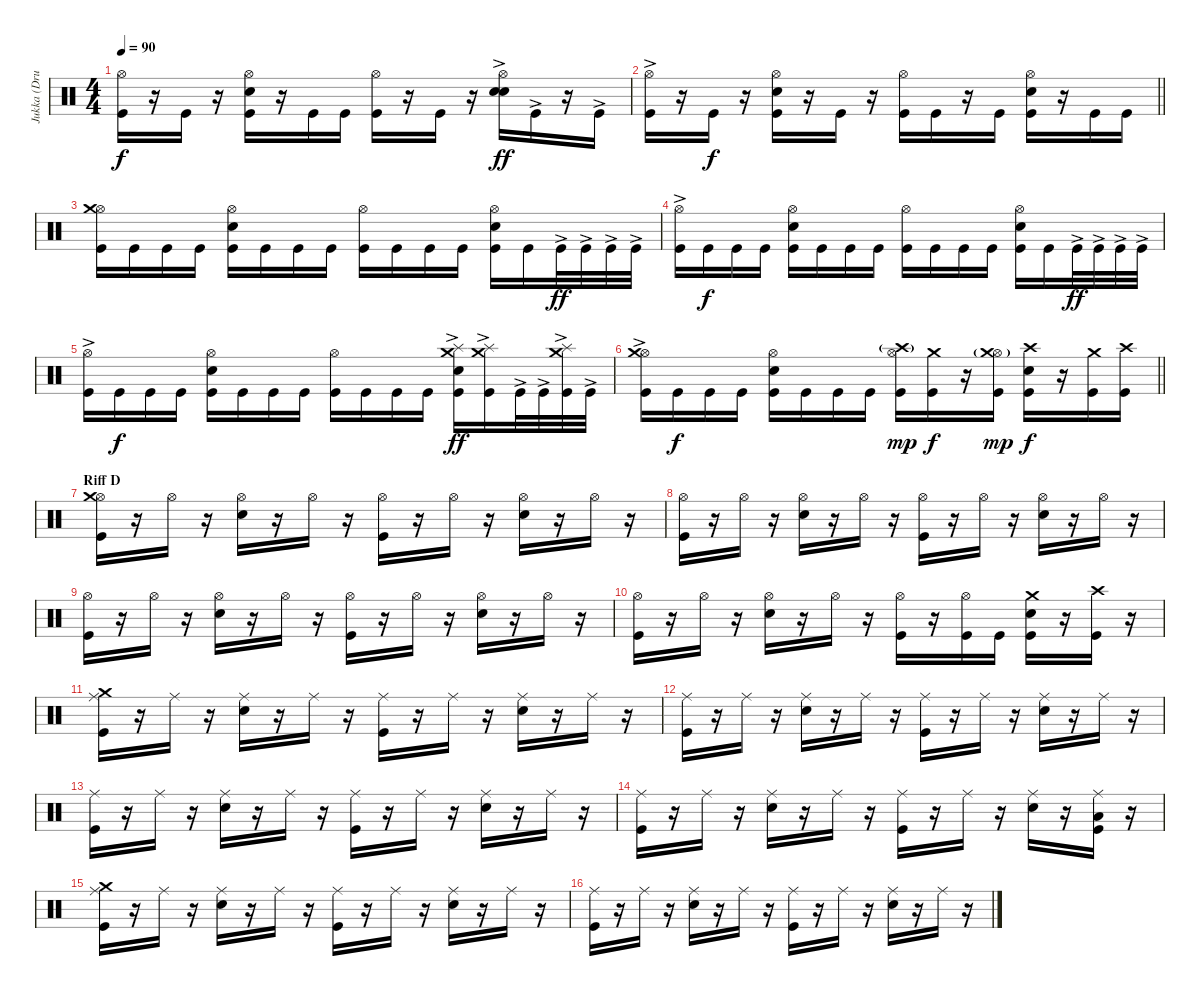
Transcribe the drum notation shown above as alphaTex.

\track ("Jukka (Drums)" "Jukka (Dru") {instrument percussion}
\staff {score}
\articulation defaults
\ts (4 4)
\tempo 90
\clef neutral
\ks c
("Hi-Hat (open)" "Kick (hit)").16{dy f} r.16 "Kick (hit)".16 r.16 ("Hi-Hat (open)" "Snare (hit) 2" "Kick (hit)").16 r.16 "Kick (hit)".16 "Kick (hit)".16 ("Hi-Hat (open)" "Kick (hit)").16 r.16 "Kick (hit)".16 r.16 ("Hi-Hat (open)" "Snare (hit) 2" "Snare (hit) 2"{ac}).16{dy ff} "Kick (hit)"{ac}.16 r.16 "Kick (hit)"{ac}.16 |
\barLineRight lightlight
("Hi-Hat (open)" "Kick (hit)"{ac}).16 r.16 "Kick (hit)".16{dy f} r.16 ("Hi-Hat (open)" "Snare (hit) 2" "Kick (hit)").16 r.16 "Kick (hit)".16 r.16 ("Hi-Hat (open)" "Kick (hit)").16 "Kick (hit)".16 r.16 "Kick (hit)".16 ("Hi-Hat (open)" "Snare (hit) 2" "Kick (hit)").16 r.16 "Kick (hit)".16 "Kick (hit)".16 |
("Hi-Hat (open)" "Crash medium (hit)" "Kick (hit)").16 "Kick (hit)".16 "Kick (hit)".16 "Kick (hit)".16 ("Hi-Hat (open)" "Snare (hit) 2" "Kick (hit)").16 "Kick (hit)".16 "Kick (hit)".16 "Kick (hit)".16 ("Hi-Hat (open)" "Kick (hit)").16 "Kick (hit)".16 "Kick (hit)".16 "Kick (hit)".16 ("Hi-Hat (open)" "Snare (hit) 2" "Kick (hit)").16 "Kick (hit)".16 "Kick (hit)"{ac}.32{dy ff} "Kick (hit)"{ac}.32 "Kick (hit)"{ac}.32 "Kick (hit)"{ac}.32 |
("Hi-Hat (open)" "Kick (hit)"{ac}).16 "Kick (hit)".16{dy f} "Kick (hit)".16 "Kick (hit)".16 ("Hi-Hat (open)" "Snare (hit) 2" "Kick (hit)").16 "Kick (hit)".16 "Kick (hit)".16 "Kick (hit)".16 ("Hi-Hat (open)" "Kick (hit)").16 "Kick (hit)".16 "Kick (hit)".16 "Kick (hit)".16 ("Hi-Hat (open)" "Snare (hit) 2" "Kick (hit)").16 "Kick (hit)".16 "Kick (hit)"{ac}.32{dy ff} "Kick (hit)"{ac}.32 "Kick (hit)"{ac}.32 "Kick (hit)"{ac}.32 |
("Hi-Hat (open)" "Kick (hit)"{ac}).16 "Kick (hit)".16{dy f} "Kick (hit)".16 "Kick (hit)".16 ("Hi-Hat (open)" "Snare (hit) 2" "Kick (hit)").16 "Kick (hit)".16 "Kick (hit)".16 "Kick (hit)".16 ("Hi-Hat (open)" "Kick (hit)").16 "Kick (hit)".16 "Kick (hit)".16 "Kick (hit)".16 ("Crash medium (hit)" "Splash (hit)" "Snare (hit) 2" "Kick (hit)"{ac}).16{dy ff} ("Crash medium (hit)" "Splash (hit)" "Kick (hit)"{ac}).16 "Kick (hit)"{ac}.32 "Kick (hit)"{ac}.32 ("Crash medium (hit)" "Splash (hit)" "Kick (hit)"{ac}).32 "Kick (hit)"{ac}.32 |
\barLineRight lightlight
("Hi-Hat (open)" "Crash medium (hit)" "Kick (hit)"{ac}).16 "Kick (hit)".16{dy f} "Kick (hit)".16 "Kick (hit)".16 ("Hi-Hat (open)" "Snare (hit) 2" "Kick (hit)").16 "Kick (hit)".16 "Kick (hit)".16 "Kick (hit)".16 ("Hi-Hat (open)" "Crash high (hit)"{g} "Kick (hit)").16{dy mp} ("Crash medium (hit)" "Kick (hit)").16{dy f} r.16 ("Hi-Hat (open)" "Crash medium (hit)"{g} "Kick (hit)").16{dy mp} ("Crash high (hit)" "Snare (hit) 2" "Kick (hit)").16{dy f} r.16 ("Crash medium (hit)" "Kick (hit)").16 ("Crash high (hit)" "Kick (hit)").16 |
\section ("" "Riff D")
("Hi-Hat (open)" "Crash medium (hit)" "Kick (hit)").16 r.16 "Hi-Hat (open)".16 r.16 ("Hi-Hat (open)" "Snare (hit) 2").16 r.16 "Hi-Hat (open)".16 r.16 ("Hi-Hat (open)" "Kick (hit)").16 r.16 "Hi-Hat (open)".16 r.16 ("Hi-Hat (open)" "Snare (hit) 2").16 r.16 "Hi-Hat (open)".16 r.16 |
("Hi-Hat (open)" "Kick (hit)").16 r.16 "Hi-Hat (open)".16 r.16 ("Hi-Hat (open)" "Snare (hit) 2").16 r.16 "Hi-Hat (open)".16 r.16 ("Hi-Hat (open)" "Kick (hit)").16 r.16 "Hi-Hat (open)".16 r.16 ("Hi-Hat (open)" "Snare (hit) 2").16 r.16 "Hi-Hat (open)".16 r.16 |
("Hi-Hat (open)" "Kick (hit)").16 r.16 "Hi-Hat (open)".16 r.16 ("Hi-Hat (open)" "Snare (hit) 2").16 r.16 "Hi-Hat (open)".16 r.16 ("Hi-Hat (open)" "Kick (hit)").16 r.16 "Hi-Hat (open)".16 r.16 ("Hi-Hat (open)" "Snare (hit) 2").16 r.16 "Hi-Hat (open)".16 r.16 |
("Hi-Hat (open)" "Kick (hit)").16 r.16 "Hi-Hat (open)".16 r.16 ("Hi-Hat (open)" "Snare (hit) 2").16 r.16 "Hi-Hat (open)".16 r.16 ("Hi-Hat (open)" "Kick (hit)").16 r.16 ("Hi-Hat (open)" "Kick (hit)").16 "Kick (hit)".16 ("Crash medium (hit)" "Snare (hit) 2" "Kick (hit)").16 r.16 ("Crash high (hit)" "Kick (hit)").16 r.16 |
("Ride (middle)" "Crash medium (hit)" "Kick (hit)").16 r.16 "Ride (middle)".16 r.16 ("Ride (middle)" "Snare (hit) 2").16 r.16 "Ride (middle)".16 r.16 ("Ride (middle)" "Kick (hit)").16 r.16 "Ride (middle)".16 r.16 ("Ride (middle)" "Snare (hit) 2").16 r.16 "Ride (middle)".16 r.16 |
("Ride (middle)" "Kick (hit)").16 r.16 "Ride (middle)".16 r.16 ("Ride (middle)" "Snare (hit) 2").16 r.16 "Ride (middle)".16 r.16 ("Ride (middle)" "Kick (hit)").16 r.16 "Ride (middle)".16 r.16 ("Ride (middle)" "Snare (hit) 2").16 r.16 "Ride (middle)".16 r.16 |
("Ride (middle)" "Kick (hit)").16 r.16 "Ride (middle)".16 r.16 ("Ride (middle)" "Snare (hit) 2").16 r.16 "Ride (middle)".16 r.16 ("Ride (middle)" "Kick (hit)").16 r.16 "Ride (middle)".16 r.16 ("Ride (middle)" "Snare (hit) 2").16 r.16 "Ride (middle)".16 r.16 |
("Ride (middle)" "Kick (hit)").16 r.16 "Ride (middle)".16 r.16 ("Ride (middle)" "Snare (hit) 2").16 r.16 "Ride (middle)".16 r.16 ("Ride (middle)" "Kick (hit)").16 r.16 "Ride (middle)".16 r.16 ("Ride (middle)" "Snare (hit) 2").16 r.16 ("Ride (middle)" "Low Floor Tom (hit)" "Kick (hit)").16 r.16 |
("Ride (middle)" "Crash medium (hit)" "Kick (hit)").16 r.16 "Ride (middle)".16 r.16 ("Ride (middle)" "Snare (hit) 2").16 r.16 "Ride (middle)".16 r.16 ("Ride (middle)" "Kick (hit)").16 r.16 "Ride (middle)".16 r.16 ("Ride (middle)" "Snare (hit) 2").16 r.16 "Ride (middle)".16 r.16 |
("Ride (middle)" "Kick (hit)").16 r.16 "Ride (middle)".16 r.16 ("Ride (middle)" "Snare (hit) 2").16 r.16 "Ride (middle)".16 r.16 ("Ride (middle)" "Kick (hit)").16 r.16 "Ride (middle)".16 r.16 ("Ride (middle)" "Snare (hit) 2").16 r.16 "Ride (middle)".16 r.16
